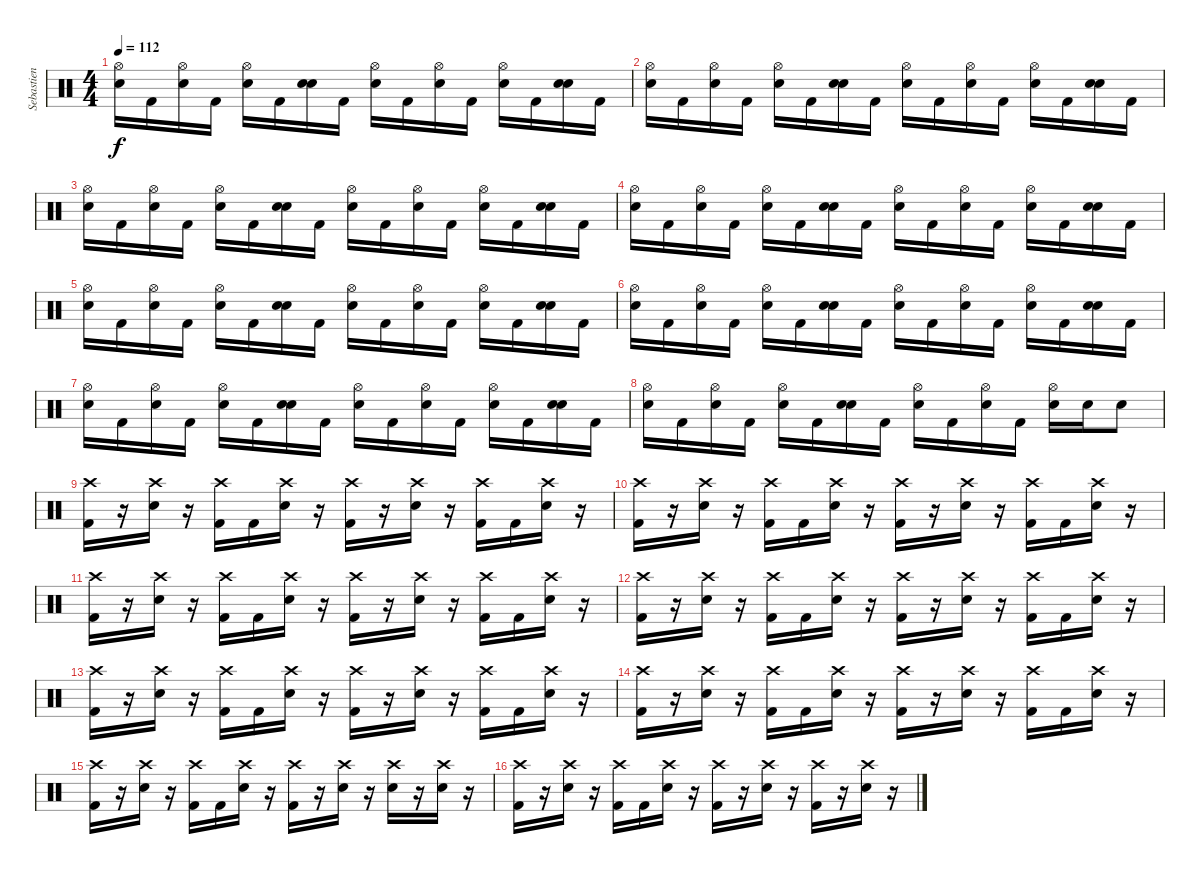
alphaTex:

\track ("Sebastien Grainger" "Sebastien ") {instrument percussion}
\staff {score}
\articulation defaults
\ts (4 4)
\tempo 112
\clef neutral
\ks c
("Hi-Hat (open)" "Snare (hit) 2").16{dy f} "Kick (hit) 2".16 ("Hi-Hat (open)" "Snare (hit) 2").16 "Kick (hit) 2".16 ("Hi-Hat (open)" "Snare (hit) 2").16 "Kick (hit) 2".16 ("Snare (hit) 2" "Snare (hit) 2").16 "Kick (hit) 2".16 ("Hi-Hat (open)" "Snare (hit) 2").16 "Kick (hit) 2".16 ("Hi-Hat (open)" "Snare (hit) 2").16 "Kick (hit) 2".16 ("Hi-Hat (open)" "Snare (hit) 2").16 "Kick (hit) 2".16 ("Snare (hit) 2" "Snare (hit) 2").16 "Kick (hit) 2".16 |
("Hi-Hat (open)" "Snare (hit) 2").16 "Kick (hit) 2".16 ("Hi-Hat (open)" "Snare (hit) 2").16 "Kick (hit) 2".16 ("Hi-Hat (open)" "Snare (hit) 2").16 "Kick (hit) 2".16 ("Snare (hit) 2" "Snare (hit) 2").16 "Kick (hit) 2".16 ("Hi-Hat (open)" "Snare (hit) 2").16 "Kick (hit) 2".16 ("Hi-Hat (open)" "Snare (hit) 2").16 "Kick (hit) 2".16 ("Hi-Hat (open)" "Snare (hit) 2").16 "Kick (hit) 2".16 ("Snare (hit) 2" "Snare (hit) 2").16 "Kick (hit) 2".16 |
("Hi-Hat (open)" "Snare (hit) 2").16 "Kick (hit) 2".16 ("Hi-Hat (open)" "Snare (hit) 2").16 "Kick (hit) 2".16 ("Hi-Hat (open)" "Snare (hit) 2").16 "Kick (hit) 2".16 ("Snare (hit) 2" "Snare (hit) 2").16 "Kick (hit) 2".16 ("Hi-Hat (open)" "Snare (hit) 2").16 "Kick (hit) 2".16 ("Hi-Hat (open)" "Snare (hit) 2").16 "Kick (hit) 2".16 ("Hi-Hat (open)" "Snare (hit) 2").16 "Kick (hit) 2".16 ("Snare (hit) 2" "Snare (hit) 2").16 "Kick (hit) 2".16 |
("Hi-Hat (open)" "Snare (hit) 2").16 "Kick (hit) 2".16 ("Hi-Hat (open)" "Snare (hit) 2").16 "Kick (hit) 2".16 ("Hi-Hat (open)" "Snare (hit) 2").16 "Kick (hit) 2".16 ("Snare (hit) 2" "Snare (hit) 2").16 "Kick (hit) 2".16 ("Hi-Hat (open)" "Snare (hit) 2").16 "Kick (hit) 2".16 ("Hi-Hat (open)" "Snare (hit) 2").16 "Kick (hit) 2".16 ("Hi-Hat (open)" "Snare (hit) 2").16 "Kick (hit) 2".16 ("Snare (hit) 2" "Snare (hit) 2").16 "Kick (hit) 2".16 |
("Hi-Hat (open)" "Snare (hit) 2").16 "Kick (hit) 2".16 ("Hi-Hat (open)" "Snare (hit) 2").16 "Kick (hit) 2".16 ("Hi-Hat (open)" "Snare (hit) 2").16 "Kick (hit) 2".16 ("Snare (hit) 2" "Snare (hit) 2").16 "Kick (hit) 2".16 ("Hi-Hat (open)" "Snare (hit) 2").16 "Kick (hit) 2".16 ("Hi-Hat (open)" "Snare (hit) 2").16 "Kick (hit) 2".16 ("Hi-Hat (open)" "Snare (hit) 2").16 "Kick (hit) 2".16 ("Snare (hit) 2" "Snare (hit) 2").16 "Kick (hit) 2".16 |
("Hi-Hat (open)" "Snare (hit) 2").16 "Kick (hit) 2".16 ("Hi-Hat (open)" "Snare (hit) 2").16 "Kick (hit) 2".16 ("Hi-Hat (open)" "Snare (hit) 2").16 "Kick (hit) 2".16 ("Snare (hit) 2" "Snare (hit) 2").16 "Kick (hit) 2".16 ("Hi-Hat (open)" "Snare (hit) 2").16 "Kick (hit) 2".16 ("Hi-Hat (open)" "Snare (hit) 2").16 "Kick (hit) 2".16 ("Hi-Hat (open)" "Snare (hit) 2").16 "Kick (hit) 2".16 ("Snare (hit) 2" "Snare (hit) 2").16 "Kick (hit) 2".16 |
("Hi-Hat (open)" "Snare (hit) 2").16 "Kick (hit) 2".16 ("Hi-Hat (open)" "Snare (hit) 2").16 "Kick (hit) 2".16 ("Hi-Hat (open)" "Snare (hit) 2").16 "Kick (hit) 2".16 ("Snare (hit) 2" "Snare (hit) 2").16 "Kick (hit) 2".16 ("Hi-Hat (open)" "Snare (hit) 2").16 "Kick (hit) 2".16 ("Hi-Hat (open)" "Snare (hit) 2").16 "Kick (hit) 2".16 ("Hi-Hat (open)" "Snare (hit) 2").16 "Kick (hit) 2".16 ("Snare (hit) 2" "Snare (hit) 2").16 "Kick (hit) 2".16 |
("Hi-Hat (open)" "Snare (hit) 2").16 "Kick (hit) 2".16 ("Hi-Hat (open)" "Snare (hit) 2").16 "Kick (hit) 2".16 ("Hi-Hat (open)" "Snare (hit) 2").16 "Kick (hit) 2".16 ("Snare (hit) 2" "Snare (hit) 2").16 "Kick (hit) 2".16 ("Hi-Hat (open)" "Snare (hit) 2").16 "Kick (hit) 2".16 ("Hi-Hat (open)" "Snare (hit) 2").16 "Kick (hit) 2".16 ("Hi-Hat (open)" "Snare (hit) 2").16 "Snare (hit) 2".16 "Snare (hit) 2".8 |
("Crash high (hit)" "Kick (hit) 2").16 r.16 ("Crash high (hit)" "Snare (hit) 2").16 r.16 ("Crash high (hit)" "Kick (hit) 2").16 "Kick (hit) 2".16 ("Crash high (hit)" "Snare (hit) 2").16 r.16 ("Crash high (hit)" "Kick (hit) 2").16 r.16 ("Crash high (hit)" "Snare (hit) 2").16 r.16 ("Crash high (hit)" "Kick (hit) 2").16 "Kick (hit) 2".16 ("Crash high (hit)" "Snare (hit) 2").16 r.16 |
("Crash high (hit)" "Kick (hit) 2").16 r.16 ("Crash high (hit)" "Snare (hit) 2").16 r.16 ("Crash high (hit)" "Kick (hit) 2").16 "Kick (hit) 2".16 ("Crash high (hit)" "Snare (hit) 2").16 r.16 ("Crash high (hit)" "Kick (hit) 2").16 r.16 ("Crash high (hit)" "Snare (hit) 2").16 r.16 ("Crash high (hit)" "Kick (hit) 2").16 "Kick (hit) 2".16 ("Crash high (hit)" "Snare (hit) 2").16 r.16 |
("Crash high (hit)" "Kick (hit) 2").16 r.16 ("Crash high (hit)" "Snare (hit) 2").16 r.16 ("Crash high (hit)" "Kick (hit) 2").16 "Kick (hit) 2".16 ("Crash high (hit)" "Snare (hit) 2").16 r.16 ("Crash high (hit)" "Kick (hit) 2").16 r.16 ("Crash high (hit)" "Snare (hit) 2").16 r.16 ("Crash high (hit)" "Kick (hit) 2").16 "Kick (hit) 2".16 ("Crash high (hit)" "Snare (hit) 2").16 r.16 |
("Crash high (hit)" "Kick (hit) 2").16 r.16 ("Crash high (hit)" "Snare (hit) 2").16 r.16 ("Crash high (hit)" "Kick (hit) 2").16 "Kick (hit) 2".16 ("Crash high (hit)" "Snare (hit) 2").16 r.16 ("Crash high (hit)" "Kick (hit) 2").16 r.16 ("Crash high (hit)" "Snare (hit) 2").16 r.16 ("Crash high (hit)" "Kick (hit) 2").16 "Kick (hit) 2".16 ("Crash high (hit)" "Snare (hit) 2").16 r.16 |
("Crash high (hit)" "Kick (hit) 2").16 r.16 ("Crash high (hit)" "Snare (hit) 2").16 r.16 ("Crash high (hit)" "Kick (hit) 2").16 "Kick (hit) 2".16 ("Crash high (hit)" "Snare (hit) 2").16 r.16 ("Crash high (hit)" "Kick (hit) 2").16 r.16 ("Crash high (hit)" "Snare (hit) 2").16 r.16 ("Crash high (hit)" "Kick (hit) 2").16 "Kick (hit) 2".16 ("Crash high (hit)" "Snare (hit) 2").16 r.16 |
("Crash high (hit)" "Kick (hit) 2").16 r.16 ("Crash high (hit)" "Snare (hit) 2").16 r.16 ("Crash high (hit)" "Kick (hit) 2").16 "Kick (hit) 2".16 ("Crash high (hit)" "Snare (hit) 2").16 r.16 ("Crash high (hit)" "Kick (hit) 2").16 r.16 ("Crash high (hit)" "Snare (hit) 2").16 r.16 ("Crash high (hit)" "Kick (hit) 2").16 "Kick (hit) 2".16 ("Crash high (hit)" "Snare (hit) 2").16 r.16 |
("Crash high (hit)" "Kick (hit) 2").16 r.16 ("Crash high (hit)" "Snare (hit) 2").16 r.16 ("Crash high (hit)" "Kick (hit) 2").16 "Kick (hit) 2".16 ("Crash high (hit)" "Snare (hit) 2").16 r.16 ("Crash high (hit)" "Kick (hit) 2").16 r.16 ("Crash high (hit)" "Snare (hit) 2").16 r.16 ("Crash high (hit)" "Snare (hit) 2").16 r.16 ("Crash high (hit)" "Snare (hit) 2").16 r.16 |
("Crash high (hit)" "Kick (hit) 2").16 r.16 ("Crash high (hit)" "Snare (hit) 2").16 r.16 ("Crash high (hit)" "Kick (hit) 2").16 "Kick (hit) 2".16 ("Crash high (hit)" "Snare (hit) 2").16 r.16 ("Crash high (hit)" "Kick (hit) 2").16 r.16 ("Crash high (hit)" "Snare (hit) 2").16 r.16 ("Crash high (hit)" "Kick (hit) 2").16 r.16 ("Crash high (hit)" "Snare (hit) 2").16 r.16
